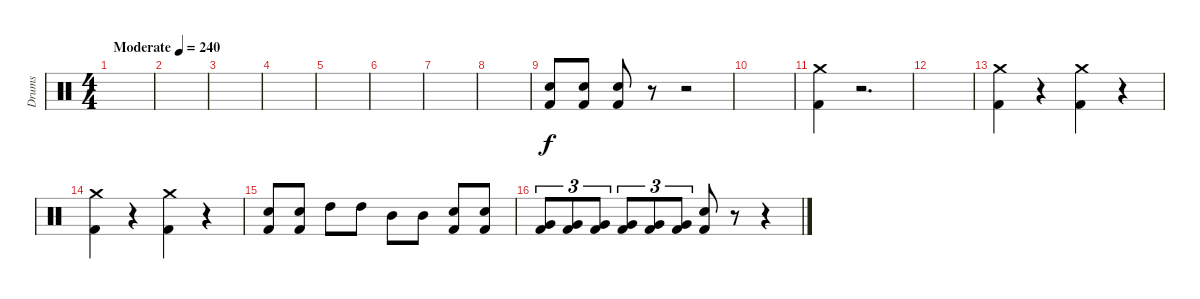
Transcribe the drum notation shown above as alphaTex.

\track ("Drums" "Drums") {instrument percussion}
\staff {score}
\articulation defaults
\ts (4 4)
\tempo (240 "Moderate")
\clef neutral
\ks c
|
|
|
|
|
|
|
|
("Snare (hit) 2" "Kick (hit) 2").8 ("Snare (hit) 2" "Kick (hit) 2").8 ("Snare (hit) 2" "Kick (hit) 2").8 r.8 r.2 |
|
("Crash medium (hit)" "Kick (hit) 2").4 r.2{d} |
|
("Crash medium (hit)" "Kick (hit) 2").4 r.4 ("Crash medium (hit)" "Kick (hit) 2").4 r.4 |
("Crash medium (hit)" "Kick (hit) 2").4 r.4 ("Crash medium (hit)" "Kick (hit) 2").4 r.4 |
("Snare (hit) 2" "Kick (hit) 2").8 ("Snare (hit) 2" "Kick (hit) 2").8 "High Tom (hit)".8 "High Tom (hit)".8 "Mid Tom (hit)".8 "Mid Tom (hit)".8 ("Snare (hit) 2" "Kick (hit) 2").8 ("Snare (hit) 2" "Kick (hit) 2").8 |
("Very Low Tom (hit)" "Kick (hit) 2").8{tu (3 2)} ("Very Low Tom (hit)" "Kick (hit) 2").8{tu (3 2)} ("Very Low Tom (hit)" "Kick (hit) 2").8{tu (3 2)} ("Very Low Tom (hit)" "Kick (hit) 2").8{tu (3 2)} ("Very Low Tom (hit)" "Kick (hit) 2").8{tu (3 2)} ("Very Low Tom (hit)" "Kick (hit) 2").8{tu (3 2)} ("Snare (hit) 2" "Kick (hit) 2").8 r.8 r.4
